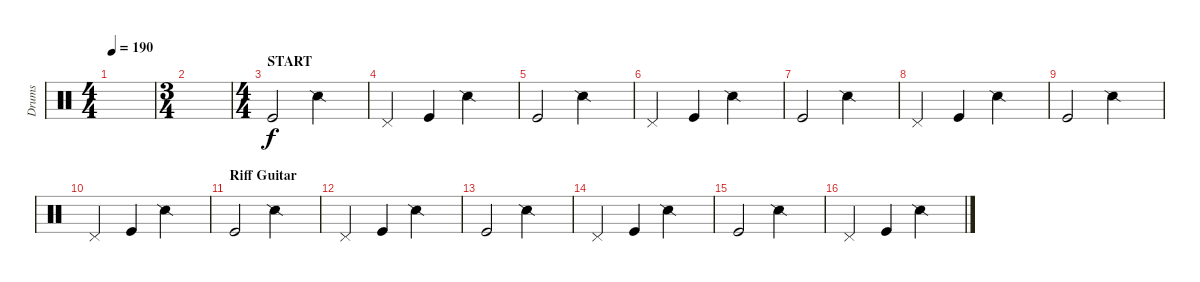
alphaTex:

\track ("Drums" "Drums") {instrument percussion}
\staff {score}
\articulation defaults
\ts (4 4)
\tempo 190
\clef neutral
\ks c
|
\ts (3 4)
|
\ts (4 4)
\section ("" "START")
"Kick (hit)".2 "Snare (side stick) 2".2 |
"Pedal Hi-Hat (hit)".4 "Kick (hit)".4 "Snare (side stick) 2".2 |
"Kick (hit)".2 "Snare (side stick) 2".2 |
"Pedal Hi-Hat (hit)".4 "Kick (hit)".4 "Snare (side stick) 2".2 |
"Kick (hit)".2 "Snare (side stick) 2".2 |
"Pedal Hi-Hat (hit)".4 "Kick (hit)".4 "Snare (side stick) 2".2 |
"Kick (hit)".2 "Snare (side stick) 2".2 |
"Pedal Hi-Hat (hit)".4 "Kick (hit)".4 "Snare (side stick) 2".2 |
\section ("" "Riff Guitar")
"Kick (hit)".2 "Snare (side stick) 2".2 |
"Pedal Hi-Hat (hit)".4 "Kick (hit)".4 "Snare (side stick) 2".2 |
"Kick (hit)".2 "Snare (side stick) 2".2 |
"Pedal Hi-Hat (hit)".4 "Kick (hit)".4 "Snare (side stick) 2".2 |
"Kick (hit)".2 "Snare (side stick) 2".2 |
"Pedal Hi-Hat (hit)".4 "Kick (hit)".4 "Snare (side stick) 2".2
